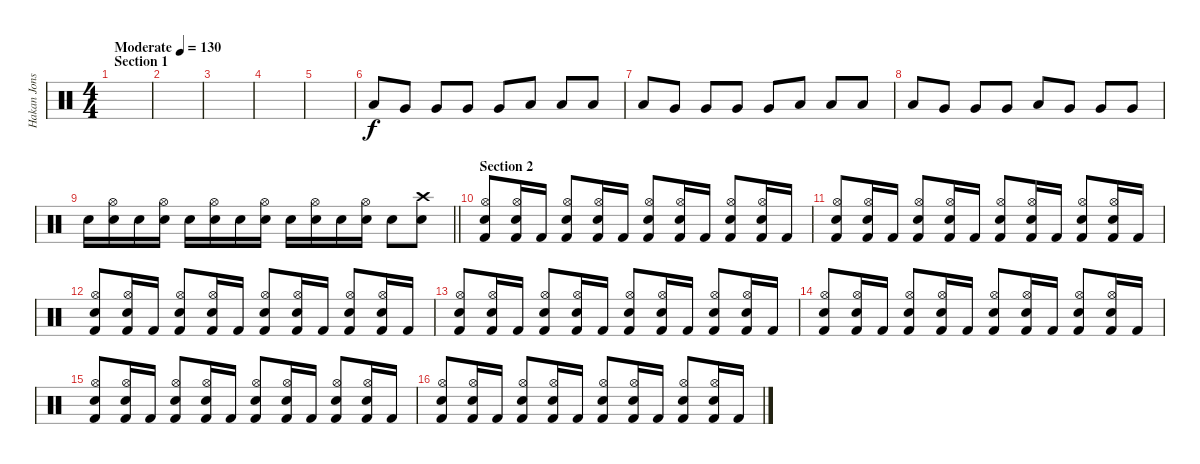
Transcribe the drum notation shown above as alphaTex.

\track ("Hakan Jonsson" "Hakan Jons") {instrument percussion}
\staff {score}
\articulation defaults
\ts (4 4)
\section ("" "Section 1")
\tempo (130 "Moderate")
\clef neutral
\ks c
|
|
|
|
|
"Low Tom (hit)".8{volume 4} "Very Low Tom (hit)".8 "Very Low Tom (hit)".8 "Very Low Tom (hit)".8 "Very Low Tom (hit)".8 "Low Floor Tom (hit)".8 "Low Floor Tom (hit)".8 "Low Floor Tom (hit)".8 |
"Low Tom (hit)".8 "Very Low Tom (hit)".8 "Very Low Tom (hit)".8 "Very Low Tom (hit)".8{volume 6} "Very Low Tom (hit)".8 "Low Floor Tom (hit)".8 "Low Floor Tom (hit)".8 "Low Floor Tom (hit)".8 |
"Low Tom (hit)".8{volume 8} "Very Low Tom (hit)".8 "Very Low Tom (hit)".8 "Very Low Tom (hit)".8 "Low Tom (hit)".8 "Very Low Tom (hit)".8 "Very Low Tom (hit)".8 "Very Low Tom (hit)".8 |
\barLineRight lightlight "Electric Snare (hit)".16{volume 16}
("Hi-Hat (open)" "Electric Snare (hit)").16 "Electric Snare (hit)".16 ("Hi-Hat (open)" "Electric Snare (hit)").16 "Electric Snare (hit)".16 ("Hi-Hat (open)" "Electric Snare (hit)").16 "Electric Snare (hit)".16 ("Hi-Hat (open)" "Electric Snare (hit)").16 "Electric Snare (hit)".16 ("Hi-Hat (open)" "Electric Snare (hit)").16 "Electric Snare (hit)".16 ("Hi-Hat (open)" "Electric Snare (hit)").16 "Electric Snare (hit)".8 ("Crash high (hit)" "Electric Snare (hit)").8 |
\section ("" "Section 2")
("Hi-Hat (open)" "Electric Snare (hit)" "Kick (hit) 2").8 ("Hi-Hat (open)" "Electric Snare (hit)" "Kick (hit) 2").16 "Kick (hit) 2".16 ("Hi-Hat (open)" "Electric Snare (hit)" "Kick (hit) 2").8 ("Hi-Hat (open)" "Electric Snare (hit)" "Kick (hit) 2").16 "Kick (hit) 2".16 ("Hi-Hat (open)" "Electric Snare (hit)" "Kick (hit) 2").8 ("Hi-Hat (open)" "Electric Snare (hit)" "Kick (hit) 2").16 "Kick (hit) 2".16 ("Hi-Hat (open)" "Electric Snare (hit)" "Kick (hit) 2").8 ("Hi-Hat (open)" "Electric Snare (hit)" "Kick (hit) 2").16 "Kick (hit) 2".16 |
("Hi-Hat (open)" "Electric Snare (hit)" "Kick (hit) 2").8 ("Hi-Hat (open)" "Electric Snare (hit)" "Kick (hit) 2").16 "Kick (hit) 2".16 ("Hi-Hat (open)" "Electric Snare (hit)" "Kick (hit) 2").8 ("Hi-Hat (open)" "Electric Snare (hit)" "Kick (hit) 2").16 "Kick (hit) 2".16 ("Hi-Hat (open)" "Electric Snare (hit)" "Kick (hit) 2").8 ("Hi-Hat (open)" "Electric Snare (hit)" "Kick (hit) 2").16 "Kick (hit) 2".16 ("Hi-Hat (open)" "Electric Snare (hit)" "Kick (hit) 2").8 ("Hi-Hat (open)" "Electric Snare (hit)" "Kick (hit) 2").16 "Kick (hit) 2".16 |
("Hi-Hat (open)" "Electric Snare (hit)" "Kick (hit) 2").8 ("Hi-Hat (open)" "Electric Snare (hit)" "Kick (hit) 2").16 "Kick (hit) 2".16 ("Hi-Hat (open)" "Electric Snare (hit)" "Kick (hit) 2").8 ("Hi-Hat (open)" "Electric Snare (hit)" "Kick (hit) 2").16 "Kick (hit) 2".16 ("Hi-Hat (open)" "Electric Snare (hit)" "Kick (hit) 2").8 ("Hi-Hat (open)" "Electric Snare (hit)" "Kick (hit) 2").16 "Kick (hit) 2".16 ("Hi-Hat (open)" "Electric Snare (hit)" "Kick (hit) 2").8 ("Hi-Hat (open)" "Electric Snare (hit)" "Kick (hit) 2").16 "Kick (hit) 2".16 |
("Hi-Hat (open)" "Electric Snare (hit)" "Kick (hit) 2").8 ("Hi-Hat (open)" "Electric Snare (hit)" "Kick (hit) 2").16 "Kick (hit) 2".16 ("Hi-Hat (open)" "Electric Snare (hit)" "Kick (hit) 2").8 ("Hi-Hat (open)" "Electric Snare (hit)" "Kick (hit) 2").16 "Kick (hit) 2".16 ("Hi-Hat (open)" "Electric Snare (hit)" "Kick (hit) 2").8 ("Hi-Hat (open)" "Electric Snare (hit)" "Kick (hit) 2").16 "Kick (hit) 2".16 ("Hi-Hat (open)" "Electric Snare (hit)" "Kick (hit) 2").8 ("Hi-Hat (open)" "Electric Snare (hit)" "Kick (hit) 2").16 "Kick (hit) 2".16 |
("Hi-Hat (open)" "Electric Snare (hit)" "Kick (hit) 2").8 ("Hi-Hat (open)" "Electric Snare (hit)" "Kick (hit) 2").16 "Kick (hit) 2".16 ("Hi-Hat (open)" "Electric Snare (hit)" "Kick (hit) 2").8 ("Hi-Hat (open)" "Electric Snare (hit)" "Kick (hit) 2").16 "Kick (hit) 2".16 ("Hi-Hat (open)" "Electric Snare (hit)" "Kick (hit) 2").8 ("Hi-Hat (open)" "Electric Snare (hit)" "Kick (hit) 2").16 "Kick (hit) 2".16 ("Hi-Hat (open)" "Electric Snare (hit)" "Kick (hit) 2").8 ("Hi-Hat (open)" "Electric Snare (hit)" "Kick (hit) 2").16 "Kick (hit) 2".16 |
("Hi-Hat (open)" "Electric Snare (hit)" "Kick (hit) 2").8 ("Hi-Hat (open)" "Electric Snare (hit)" "Kick (hit) 2").16 "Kick (hit) 2".16 ("Hi-Hat (open)" "Electric Snare (hit)" "Kick (hit) 2").8 ("Hi-Hat (open)" "Electric Snare (hit)" "Kick (hit) 2").16 "Kick (hit) 2".16 ("Hi-Hat (open)" "Electric Snare (hit)" "Kick (hit) 2").8 ("Hi-Hat (open)" "Electric Snare (hit)" "Kick (hit) 2").16 "Kick (hit) 2".16 ("Hi-Hat (open)" "Electric Snare (hit)" "Kick (hit) 2").8 ("Hi-Hat (open)" "Electric Snare (hit)" "Kick (hit) 2").16 "Kick (hit) 2".16 |
("Hi-Hat (open)" "Electric Snare (hit)" "Kick (hit) 2").8 ("Hi-Hat (open)" "Electric Snare (hit)" "Kick (hit) 2").16 "Kick (hit) 2".16 ("Hi-Hat (open)" "Electric Snare (hit)" "Kick (hit) 2").8 ("Hi-Hat (open)" "Electric Snare (hit)" "Kick (hit) 2").16 "Kick (hit) 2".16 ("Hi-Hat (open)" "Electric Snare (hit)" "Kick (hit) 2").8 ("Hi-Hat (open)" "Electric Snare (hit)" "Kick (hit) 2").16 "Kick (hit) 2".16 ("Hi-Hat (open)" "Electric Snare (hit)" "Kick (hit) 2").8 ("Hi-Hat (open)" "Electric Snare (hit)" "Kick (hit) 2").16 "Kick (hit) 2".16
